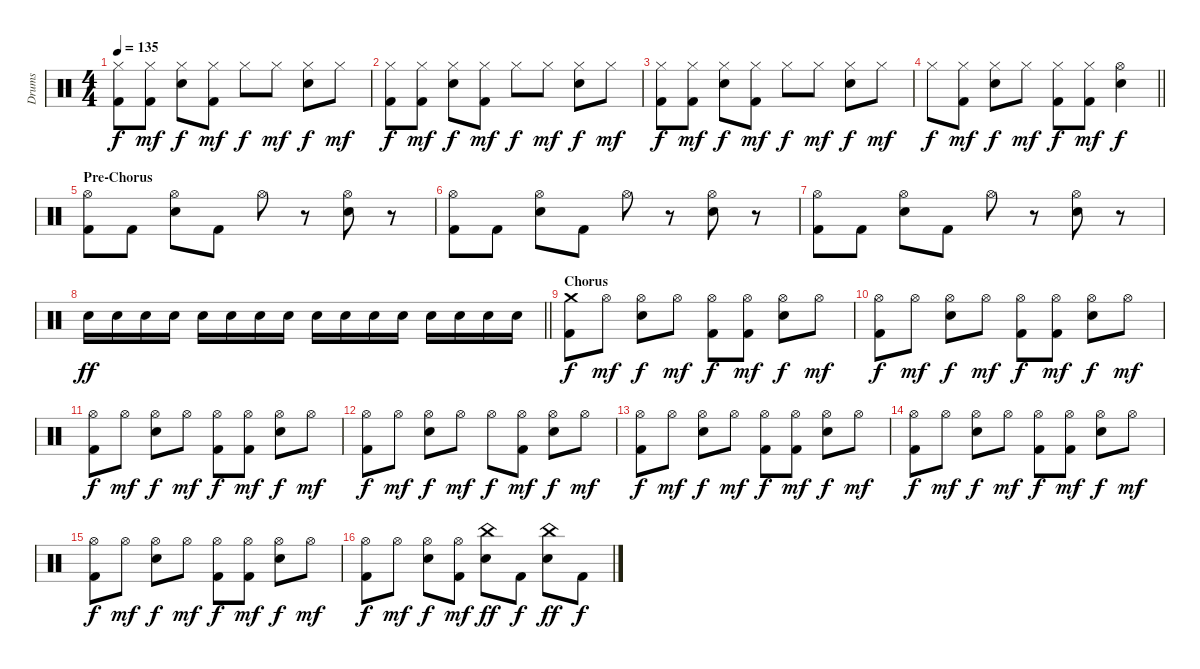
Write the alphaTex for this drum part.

\track ("Drums" "Drums") {instrument percussion}
\staff {score}
\articulation defaults
\ts (4 4)
\tempo 135
\clef neutral
\ks c
("Hi-Hat (closed)" "Kick (hit) 2").8{dy f} ("Hi-Hat (closed)" "Kick (hit) 2").8{dy mf} ("Hi-Hat (closed)" "Electric Snare (hit)").8{dy f} ("Hi-Hat (closed)" "Kick (hit) 2").8{dy mf} "Hi-Hat (closed)".8{dy f} "Hi-Hat (closed)".8{dy mf} ("Hi-Hat (closed)" "Electric Snare (hit)").8{dy f} "Hi-Hat (closed)".8{dy mf} |
("Hi-Hat (closed)" "Kick (hit) 2").8{dy f} ("Hi-Hat (closed)" "Kick (hit) 2").8{dy mf} ("Hi-Hat (closed)" "Electric Snare (hit)").8{dy f} ("Hi-Hat (closed)" "Kick (hit) 2").8{dy mf} "Hi-Hat (closed)".8{dy f} "Hi-Hat (closed)".8{dy mf} ("Hi-Hat (closed)" "Electric Snare (hit)").8{dy f} "Hi-Hat (closed)".8{dy mf} |
("Hi-Hat (closed)" "Kick (hit) 2").8{dy f} ("Hi-Hat (closed)" "Kick (hit) 2").8{dy mf} ("Hi-Hat (closed)" "Electric Snare (hit)").8{dy f} ("Hi-Hat (closed)" "Kick (hit) 2").8{dy mf} "Hi-Hat (closed)".8{dy f} "Hi-Hat (closed)".8{dy mf} ("Hi-Hat (closed)" "Electric Snare (hit)").8{dy f} "Hi-Hat (closed)".8{dy mf} |
\barLineRight lightlight "Hi-Hat (closed)".8{dy f}
("Hi-Hat (closed)" "Kick (hit) 2").8{dy mf} ("Hi-Hat (closed)" "Electric Snare (hit)").8{dy f} "Hi-Hat (closed)".8{dy mf} ("Hi-Hat (closed)" "Kick (hit) 2").8{dy f} ("Hi-Hat (closed)" "Kick (hit) 2").8{dy mf} ("Hi-Hat (open)" "Electric Snare (hit)").4{dy f} |
\section ("" "Pre-Chorus")
("Hi-Hat (open)" "Kick (hit) 2").8 "Kick (hit) 2".8 ("Hi-Hat (open)" "Electric Snare (hit)").8 "Kick (hit) 2".8 "Hi-Hat (open)".8 r.8 ("Hi-Hat (open)" "Electric Snare (hit)").8 r.8 |
("Hi-Hat (open)" "Kick (hit) 2").8 "Kick (hit) 2".8 ("Hi-Hat (open)" "Electric Snare (hit)").8 "Kick (hit) 2".8 "Hi-Hat (open)".8 r.8 ("Hi-Hat (open)" "Electric Snare (hit)").8 r.8 |
("Hi-Hat (open)" "Kick (hit) 2").8 "Kick (hit) 2".8 ("Hi-Hat (open)" "Electric Snare (hit)").8 "Kick (hit) 2".8 "Hi-Hat (open)".8 r.8 ("Hi-Hat (open)" "Electric Snare (hit)").8 r.8 |
\barLineRight lightlight "Electric Snare (hit)".16{dy ff} "Electric Snare (hit)".16 "Electric Snare (hit)".16 "Electric Snare (hit)".16 "Electric Snare (hit)".16 "Electric Snare (hit)".16 "Electric Snare (hit)".16 "Electric Snare (hit)".16 "Electric Snare (hit)".16 "Electric Snare (hit)".16 "Electric Snare (hit)".16 "Electric Snare (hit)".16 "Electric Snare (hit)".16 "Electric Snare (hit)".16 "Electric Snare (hit)".16 "Electric Snare (hit)".16
|
\section ("" "Chorus")
("Crash medium (hit)" "Kick (hit) 2").8{dy f} "Hi-Hat (open)".8{dy mf} ("Hi-Hat (open)" "Electric Snare (hit)").8{dy f} "Hi-Hat (open)".8{dy mf} ("Hi-Hat (open)" "Kick (hit) 2").8{dy f} ("Hi-Hat (open)" "Kick (hit) 2").8{dy mf} ("Hi-Hat (open)" "Electric Snare (hit)").8{dy f} "Hi-Hat (open)".8{dy mf} |
("Hi-Hat (open)" "Kick (hit) 2").8{dy f} "Hi-Hat (open)".8{dy mf} ("Hi-Hat (open)" "Electric Snare (hit)").8{dy f} "Hi-Hat (open)".8{dy mf} ("Hi-Hat (open)" "Kick (hit) 2").8{dy f} ("Hi-Hat (open)" "Kick (hit) 2").8{dy mf} ("Hi-Hat (open)" "Electric Snare (hit)").8{dy f} "Hi-Hat (open)".8{dy mf} |
("Hi-Hat (open)" "Kick (hit) 2").8{dy f} "Hi-Hat (open)".8{dy mf} ("Hi-Hat (open)" "Electric Snare (hit)").8{dy f} "Hi-Hat (open)".8{dy mf} ("Hi-Hat (open)" "Kick (hit) 2").8{dy f} ("Hi-Hat (open)" "Kick (hit) 2").8{dy mf} ("Hi-Hat (open)" "Electric Snare (hit)").8{dy f} "Hi-Hat (open)".8{dy mf} |
("Hi-Hat (open)" "Kick (hit) 2").8{dy f} "Hi-Hat (open)".8{dy mf} ("Hi-Hat (open)" "Electric Snare (hit)").8{dy f} "Hi-Hat (open)".8{dy mf} "Hi-Hat (open)".8{dy f} ("Hi-Hat (open)" "Kick (hit) 2").8{dy mf} ("Hi-Hat (open)" "Electric Snare (hit)").8{dy f} "Hi-Hat (open)".8{dy mf} |
("Hi-Hat (open)" "Kick (hit) 2").8{dy f} "Hi-Hat (open)".8{dy mf} ("Hi-Hat (open)" "Electric Snare (hit)").8{dy f} "Hi-Hat (open)".8{dy mf} ("Hi-Hat (open)" "Kick (hit) 2").8{dy f} ("Hi-Hat (open)" "Kick (hit) 2").8{dy mf} ("Hi-Hat (open)" "Electric Snare (hit)").8{dy f} "Hi-Hat (open)".8{dy mf} |
("Hi-Hat (open)" "Kick (hit) 2").8{dy f} "Hi-Hat (open)".8{dy mf} ("Hi-Hat (open)" "Electric Snare (hit)").8{dy f} "Hi-Hat (open)".8{dy mf} ("Hi-Hat (open)" "Kick (hit) 2").8{dy f} ("Hi-Hat (open)" "Kick (hit) 2").8{dy mf} ("Hi-Hat (open)" "Electric Snare (hit)").8{dy f} "Hi-Hat (open)".8{dy mf} |
("Hi-Hat (open)" "Kick (hit) 2").8{dy f} "Hi-Hat (open)".8{dy mf} ("Hi-Hat (open)" "Electric Snare (hit)").8{dy f} "Hi-Hat (open)".8{dy mf} ("Hi-Hat (open)" "Kick (hit) 2").8{dy f} ("Hi-Hat (open)" "Kick (hit) 2").8{dy mf} ("Hi-Hat (open)" "Electric Snare (hit)").8{dy f} "Hi-Hat (open)".8{dy mf} |
("Hi-Hat (open)" "Kick (hit) 2").8{dy f} "Hi-Hat (open)".8{dy mf} ("Hi-Hat (open)" "Electric Snare (hit)").8{dy f} ("Hi-Hat (open)" "Kick (hit) 2").8{dy mf} ("China (hit)" "Electric Snare (hit)").8{dy ff} "Kick (hit) 2".8{dy f} ("China (hit)" "Electric Snare (hit)").8{dy ff} "Kick (hit) 2".8{dy f}
